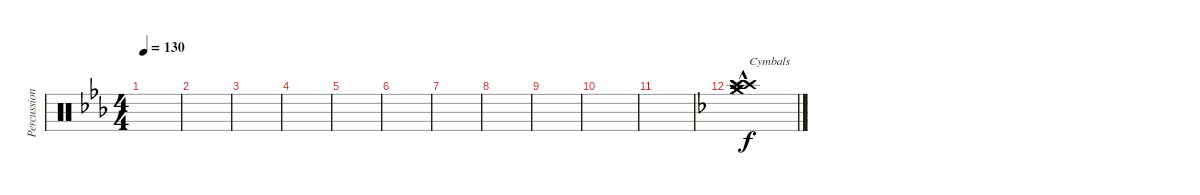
\track ("Percussion" "Percussion") {instrument percussion}
\staff {score}
\articulation defaults
\ts (4 4)
\tempo 130
\clef neutral
\ks cminor
|
|
|
|
|
|
|
|
|
|
|
\ks dminor
("Crash high (hit)"{hac} "Crash high (hit)"{hac} "Crash high (hit)"{hac} "Crash medium (hit)"{hac} "Crash medium (hit)"{hac}).1{txt "Cymbals" dy f}
